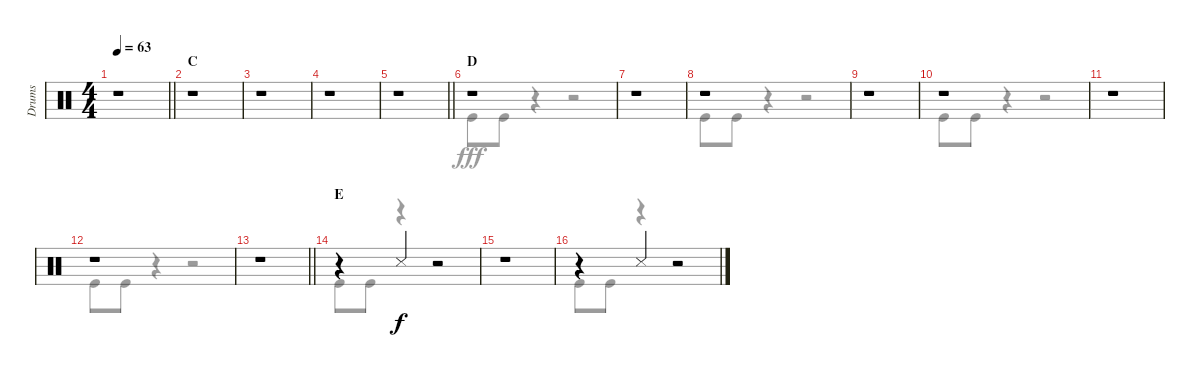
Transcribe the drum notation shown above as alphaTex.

\track ("Drums" "Drums") {instrument percussion}
\staff {score}
\articulation defaults
\voice
\ts (4 4)
\tempo 63
\clef neutral
\barLineRight lightlight
\ks c
r.1{dy f} |
\section ("" "C")
r.1 |
r.1 |
r.1 |
\barLineRight lightlight
r.1 |
\section ("" "D")
r.1 |
r.1 |
r.1 |
r.1 |
r.1 |
r.1 |
r.1 |
\barLineRight lightlight
r.1 |
\section ("" "E")
r.4 "Snare (side stick) 3".4 r.2 |
r.1 |
r.4 "Snare (side stick) 3".4 r.2
\voice
\clef neutral
\ottava regular
\simile none
\barLineRight lightlight
\ks c
r.1{dy fff} |
r.1 |
r.1 |
r.1 |
\barLineRight lightlight
r.1 |
"Kick (hit)".8 "Kick (hit)".8 r.4 r.2 |
r.1 |
"Kick (hit)".8 "Kick (hit)".8 r.4 r.2 |
r.1 |
"Kick (hit)".8 "Kick (hit)".8 r.4 r.2 |
r.1 |
"Kick (hit)".8 "Kick (hit)".8 r.4 r.2 |
\barLineRight lightlight
r.1 |
"Kick (hit)".8 "Kick (hit)".8 r.4 r.2 |
r.1 |
"Kick (hit)".8 "Kick (hit)".8 r.4 r.2
